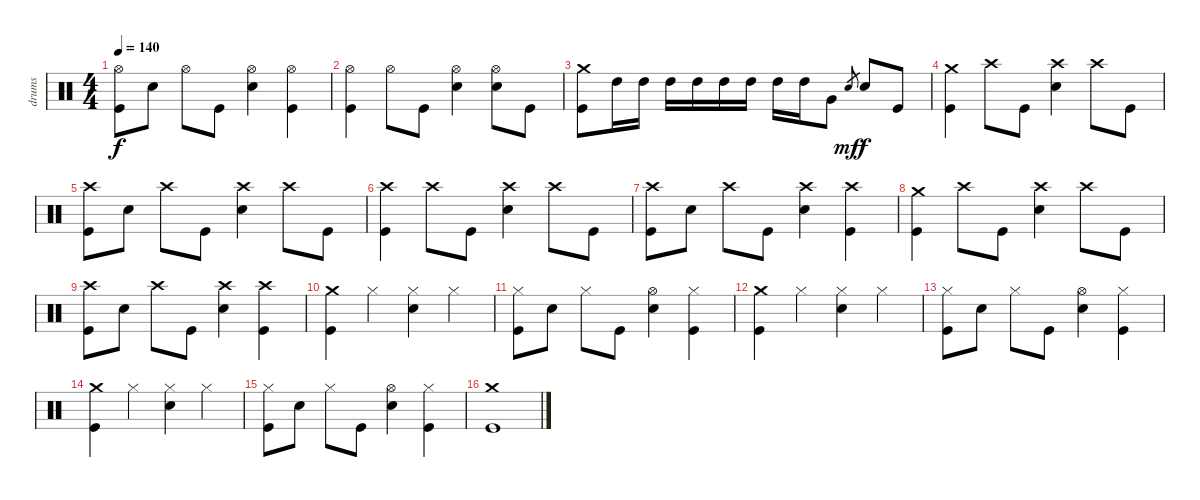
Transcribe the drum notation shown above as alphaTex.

\track ("drums" "drums") {instrument percussion}
\staff {score}
\articulation defaults
\ts (4 4)
\tempo 140
\clef neutral
\ks c
("Hi-Hat (open)" "Kick (hit)").8{dy f} "Snare (hit) 2".8 "Hi-Hat (open)".8 "Kick (hit)".8 ("Hi-Hat (open)" "Snare (hit) 2").4 ("Hi-Hat (open)" "Kick (hit)").4 |
("Hi-Hat (open)" "Kick (hit)").4 "Hi-Hat (open)".8 "Kick (hit)".8 ("Hi-Hat (open)" "Snare (hit) 2").4 ("Hi-Hat (open)" "Snare (hit) 2").8 "Kick (hit)".8 |
("Crash medium (hit)" "Kick (hit)").8 "High Tom (hit)".16 "High Tom (hit)".16 "High Tom (hit)".16 "High Tom (hit)".16 "High Tom (hit)".16 "High Tom (hit)".16 "High Tom (hit)".16 "High Tom (hit)".16 "Very Low Tom (hit)".8 "Snare (hit)".8{gr dy mf} "Snare (hit) 2".8{dy f} "Kick (hit)".8 |
("Crash medium (hit)" "Kick (hit)").4 "Crash high (hit)".8 "Kick (hit)".8 ("Crash high (hit)" "Snare (hit) 2").4 "Crash high (hit)".8 "Kick (hit)".8 |
("Crash high (hit)" "Kick (hit)").8 "Snare (hit) 2".8 "Crash high (hit)".8 "Kick (hit)".8 ("Crash high (hit)" "Snare (hit) 2").4 "Crash high (hit)".8 "Kick (hit)".8 |
("Crash high (hit)" "Kick (hit)").4 "Crash high (hit)".8 "Kick (hit)".8 ("Crash high (hit)" "Snare (hit) 2").4 "Crash high (hit)".8 "Kick (hit)".8 |
("Crash high (hit)" "Kick (hit)").8 "Snare (hit) 2".8 "Crash high (hit)".8 "Kick (hit)".8 ("Crash high (hit)" "Snare (hit) 2").4 ("Crash high (hit)" "Kick (hit)").4 |
("Crash medium (hit)" "Kick (hit)").4 "Crash high (hit)".8 "Kick (hit)".8 ("Crash high (hit)" "Snare (hit) 2").4 "Crash high (hit)".8 "Kick (hit)".8 |
("Crash high (hit)" "Kick (hit)").8 "Snare (hit) 2".8 "Crash high (hit)".8 "Kick (hit)".8 ("Crash high (hit)" "Snare (hit) 2").4 ("Crash high (hit)" "Kick (hit)").4 |
("Kick (hit)" "Crash medium (hit)").4 "Hi-Hat (closed)".4 ("Snare (hit) 2" "Hi-Hat (closed)").4 "Hi-Hat (closed)".4 |
("Kick (hit)" "Hi-Hat (closed)").8 "Snare (hit) 2".8 "Hi-Hat (closed)".8 "Kick (hit)".8 ("Snare (hit) 2" "Hi-Hat (open)").4 ("Kick (hit)" "Hi-Hat (closed)").4 |
("Kick (hit)" "Crash medium (hit)").4 "Hi-Hat (closed)".4 ("Snare (hit) 2" "Hi-Hat (closed)").4 "Hi-Hat (closed)".4 |
("Kick (hit)" "Hi-Hat (closed)").8 "Snare (hit) 2".8 "Hi-Hat (closed)".8 "Kick (hit)".8 ("Snare (hit) 2" "Hi-Hat (open)").4 ("Kick (hit)" "Hi-Hat (closed)").4 |
("Kick (hit)" "Crash medium (hit)").4 "Hi-Hat (closed)".4 ("Snare (hit) 2" "Hi-Hat (closed)").4 "Hi-Hat (closed)".4 |
("Kick (hit)" "Hi-Hat (closed)").8 "Snare (hit) 2".8 "Hi-Hat (closed)".8 "Kick (hit)".8 ("Snare (hit) 2" "Hi-Hat (open)").4 ("Kick (hit)" "Hi-Hat (closed)").4 |
("Kick (hit)" "Crash medium (hit)").1
